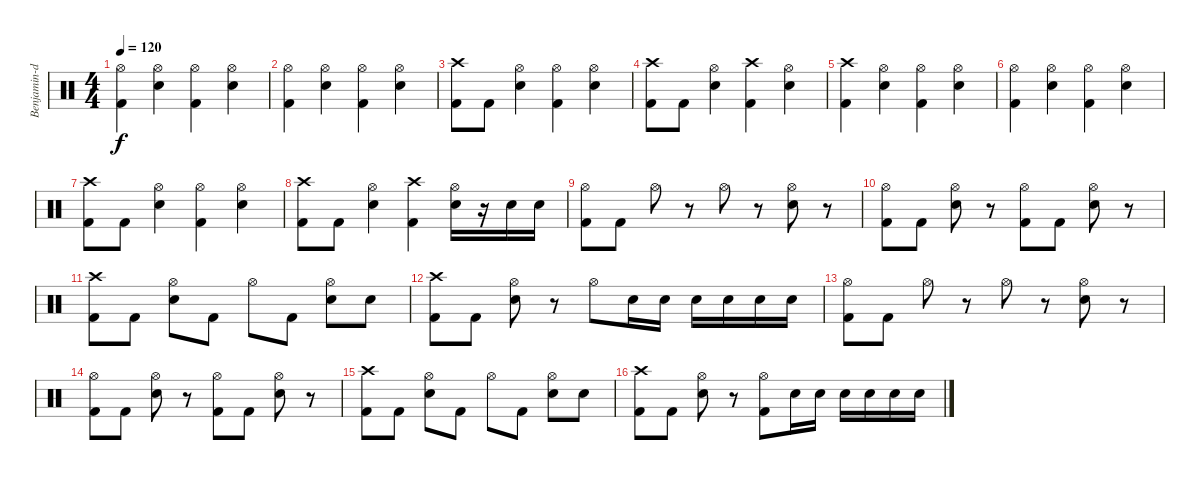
\track ("Benjamin-drums" "Benjamin-d") {instrument percussion}
\staff {score}
\articulation defaults
\ts (4 4)
\tempo 120
\clef neutral
\ks c
("Hi-Hat (open)" "Kick (hit) 2").4{dy f} ("Hi-Hat (open)" "Snare (hit) 2").4 ("Hi-Hat (open)" "Kick (hit) 2").4 ("Hi-Hat (open)" "Snare (hit) 2").4 |
("Hi-Hat (open)" "Kick (hit) 2").4 ("Hi-Hat (open)" "Snare (hit) 2").4 ("Hi-Hat (open)" "Kick (hit) 2").4 ("Hi-Hat (open)" "Snare (hit) 2").4 |
("Crash high (hit)" "Kick (hit) 2").8 "Kick (hit) 2".8 ("Hi-Hat (open)" "Snare (hit) 2").4 ("Hi-Hat (open)" "Kick (hit) 2").4 ("Hi-Hat (open)" "Snare (hit) 2").4 |
("Crash high (hit)" "Kick (hit) 2").8 "Kick (hit) 2".8 ("Hi-Hat (open)" "Snare (hit) 2").4 ("Crash high (hit)" "Kick (hit) 2").4 ("Hi-Hat (open)" "Snare (hit) 2").4 |
("Crash high (hit)" "Kick (hit) 2").4 ("Hi-Hat (open)" "Snare (hit) 2").4 ("Hi-Hat (open)" "Kick (hit) 2").4 ("Hi-Hat (open)" "Snare (hit) 2").4 |
("Hi-Hat (open)" "Kick (hit) 2").4 ("Hi-Hat (open)" "Snare (hit) 2").4 ("Hi-Hat (open)" "Kick (hit) 2").4 ("Hi-Hat (open)" "Snare (hit) 2").4 |
("Crash high (hit)" "Kick (hit) 2").8 "Kick (hit) 2".8 ("Hi-Hat (open)" "Snare (hit) 2").4 ("Hi-Hat (open)" "Kick (hit) 2").4 ("Hi-Hat (open)" "Snare (hit) 2").4 |
("Crash high (hit)" "Kick (hit) 2").8 "Kick (hit) 2".8 ("Hi-Hat (open)" "Snare (hit) 2").4 ("Crash high (hit)" "Kick (hit) 2").4 ("Hi-Hat (open)" "Snare (hit) 2").16 r.16 "Snare (hit) 2".16 "Snare (hit) 2".16 |
("Hi-Hat (open)" "Kick (hit) 2").8 "Kick (hit) 2".8 "Hi-Hat (open)".8 r.8 "Hi-Hat (open)".8 r.8 ("Hi-Hat (open)" "Snare (hit) 2").8 r.8 |
("Hi-Hat (open)" "Kick (hit) 2").8 "Kick (hit) 2".8 ("Hi-Hat (open)" "Snare (hit) 2").8 r.8 ("Hi-Hat (open)" "Kick (hit) 2").8 "Kick (hit) 2".8 ("Hi-Hat (open)" "Snare (hit) 2").8 r.8 |
("Crash high (hit)" "Kick (hit) 2").8 "Kick (hit) 2".8 ("Hi-Hat (open)" "Snare (hit) 2").8 "Kick (hit) 2".8 "Hi-Hat (open)".8 "Kick (hit) 2".8 ("Hi-Hat (open)" "Snare (hit) 2").8 "Snare (hit) 2".8 |
("Crash high (hit)" "Kick (hit) 2").8 "Kick (hit) 2".8 ("Hi-Hat (open)" "Snare (hit) 2").8 r.8 "Hi-Hat (open)".8 "Snare (hit) 2".16 "Snare (hit) 2".16 "Snare (hit) 2".16 "Snare (hit) 2".16 "Snare (hit) 2".16 "Snare (hit) 2".16 |
("Hi-Hat (open)" "Kick (hit) 2").8 "Kick (hit) 2".8 "Hi-Hat (open)".8 r.8 "Hi-Hat (open)".8 r.8 ("Hi-Hat (open)" "Snare (hit) 2").8 r.8 |
("Hi-Hat (open)" "Kick (hit) 2").8 "Kick (hit) 2".8 ("Hi-Hat (open)" "Snare (hit) 2").8 r.8 ("Hi-Hat (open)" "Kick (hit) 2").8 "Kick (hit) 2".8 ("Hi-Hat (open)" "Snare (hit) 2").8 r.8 |
("Crash high (hit)" "Kick (hit) 2").8 "Kick (hit) 2".8 ("Hi-Hat (open)" "Snare (hit) 2").8 "Kick (hit) 2".8 "Hi-Hat (open)".8 "Kick (hit) 2".8 ("Hi-Hat (open)" "Snare (hit) 2").8 "Snare (hit) 2".8 |
("Crash high (hit)" "Kick (hit) 2").8 "Kick (hit) 2".8 ("Hi-Hat (open)" "Snare (hit) 2").8 r.8 ("Hi-Hat (open)" "Kick (hit) 2").8 "Snare (hit) 2".16 "Snare (hit) 2".16 "Snare (hit) 2".16 "Snare (hit) 2".16 "Snare (hit) 2".16 "Snare (hit) 2".16
